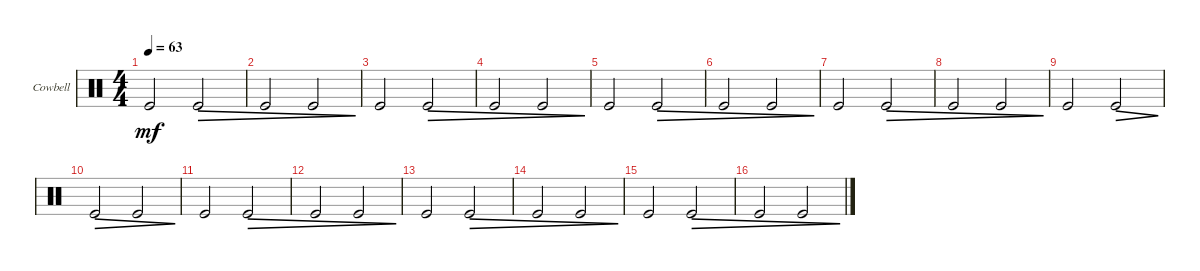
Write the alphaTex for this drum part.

\defaultSystemsLayout 4
\bracketExtendMode groupsimilarinstruments
\firstSystemTrackNameOrientation horizontal
\otherSystemsTrackNameOrientation horizontal
\track ("Cowbell" "Cowbell") {instrument percussion}
\staff {score}
\articulation defaults
\ts (4 4)
\tempo 63
\clef neutral
\ks c "Kick (hit)".2{dy mf} "Kick (hit)".2{dec}
|
"Kick (hit)".2{dec} "Kick (hit)".2{dec} |
"Kick (hit)".2 "Kick (hit)".2{dec} |
"Kick (hit)".2{dec} "Kick (hit)".2{dec} |
"Kick (hit)".2 "Kick (hit)".2{dec} |
"Kick (hit)".2{dec} "Kick (hit)".2{dec} |
"Kick (hit)".2 "Kick (hit)".2{dec} |
"Kick (hit)".2{dec} "Kick (hit)".2{dec} |
"Kick (hit)".2 "Kick (hit)".2{dec} |
"Kick (hit)".2{dec} "Kick (hit)".2{dec} |
"Kick (hit)".2 "Kick (hit)".2{dec} |
"Kick (hit)".2{dec} "Kick (hit)".2{dec} |
"Kick (hit)".2 "Kick (hit)".2{dec} |
"Kick (hit)".2{dec} "Kick (hit)".2{dec} |
"Kick (hit)".2 "Kick (hit)".2{dec} |
"Kick (hit)".2{dec} "Kick (hit)".2{dec}
